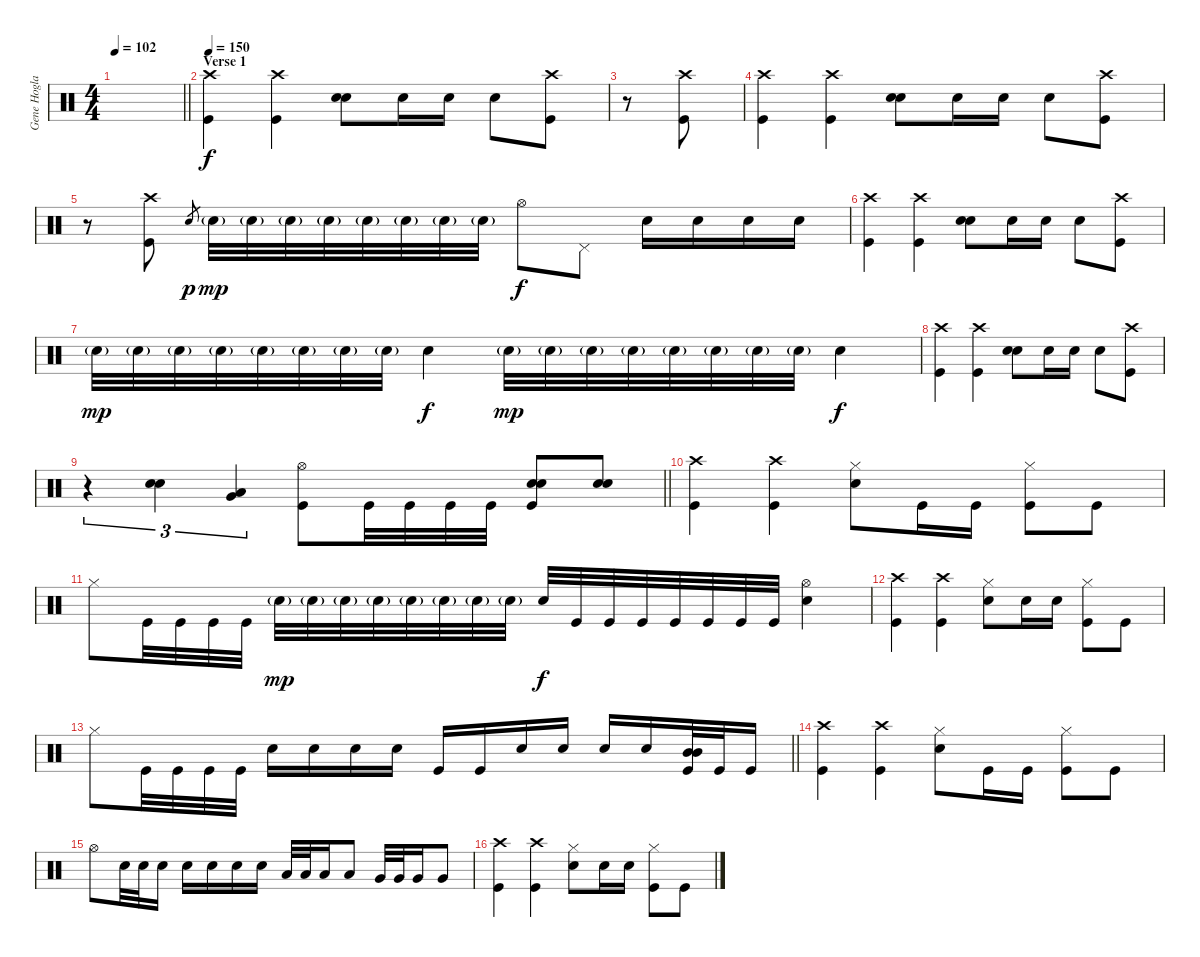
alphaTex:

\track ("Gene Hoglan" "Gene Hogla") {instrument percussion}
\staff {score}
\articulation defaults
\ts (4 4)
\tempo 102
\clef neutral
\barLineRight lightlight
\ks c
|
\section ("" "Verse 1")
\tempo 150
("Kick (hit)" "Crash high (hit)").4{volume 13} ("Kick (hit)" "Crash high (hit)").4 ("Snare (hit) 2" "Snare (hit) 2").8 "Snare (hit) 2".16 "Snare (hit) 2".16 "Snare (hit) 2".8 ("Kick (hit)" "Crash high (hit)").8 |
r.8 ("Kick (hit)" "Crash high (hit)").8 |
("Kick (hit)" "Crash high (hit)").4 ("Kick (hit)" "Crash high (hit)").4 ("Snare (hit) 2" "Snare (hit) 2").8 "Snare (hit) 2".16 "Snare (hit) 2".16 "Snare (hit) 2".8 ("Kick (hit)" "Crash high (hit)").8 |
r.8 ("Kick (hit)" "Crash high (hit)").8 "Snare (hit) 2".8{gr dy p} "Snare (hit) 2"{g}.32{dy mp} "Snare (hit) 2"{g}.32 "Snare (hit) 2"{g}.32 "Snare (hit) 2"{g}.32 "Snare (hit) 2"{g}.32 "Snare (hit) 2"{g}.32 "Snare (hit) 2"{g}.32 "Snare (hit) 2"{g}.32 "Hi-Hat (open)".8{dy f} "Pedal Hi-Hat (hit)".8 "Snare (hit) 2".16 "Snare (hit) 2".16 "Snare (hit) 2".16 "Snare (hit) 2".16 |
("Kick (hit)" "Crash high (hit)").4 ("Kick (hit)" "Crash high (hit)").4 ("Snare (hit) 2" "Snare (hit) 2").8 "Snare (hit) 2".16 "Snare (hit) 2".16 "Snare (hit) 2".8 ("Kick (hit)" "Crash high (hit)").8 |
"Snare (hit) 2"{g}.32{dy mp} "Snare (hit) 2"{g}.32 "Snare (hit) 2"{g}.32 "Snare (hit) 2"{g}.32 "Snare (hit) 2"{g}.32 "Snare (hit) 2"{g}.32 "Snare (hit) 2"{g}.32 "Snare (hit) 2"{g}.32 "Snare (hit) 2".4{dy f} "Snare (hit) 2"{g}.32{dy mp} "Snare (hit) 2"{g}.32 "Snare (hit) 2"{g}.32 "Snare (hit) 2"{g}.32 "Snare (hit) 2"{g}.32 "Snare (hit) 2"{g}.32 "Snare (hit) 2"{g}.32 "Snare (hit) 2"{g}.32 "Snare (hit) 2".4{dy f} |
("Kick (hit)" "Crash high (hit)").4 ("Kick (hit)" "Crash high (hit)").4 ("Snare (hit) 2" "Snare (hit) 2").8 "Snare (hit) 2".16 "Snare (hit) 2".16 "Snare (hit) 2".8 ("Kick (hit)" "Crash high (hit)").8 |
\barLineRight lightlight
r.4{tu (3 2)} ("Snare (hit) 2" "Snare (hit) 2").4{tu (3 2)} ("Very Low Tom (hit)" "Low Tom (hit)").4{tu (3 2)} ("Kick (hit)" "Hi-Hat (open)").8 "Kick (hit)".32 "Kick (hit)".32 "Kick (hit)".32 "Kick (hit)".32 ("Snare (hit) 2" "Snare (hit) 2" "Kick (hit)").8 ("Snare (hit) 2" "Snare (hit) 2").8 |
("Kick (hit)" "Crash high (hit)").4 ("Kick (hit)" "Crash high (hit)").4 ("Snare (hit) 2" "Hi-Hat (closed)").8 "Kick (hit)".16 "Kick (hit)".16 ("Hi-Hat (closed)" "Kick (hit)").8 "Kick (hit)".8 |
"Hi-Hat (closed)".8 "Kick (hit)".32 "Kick (hit)".32 "Kick (hit)".32 "Kick (hit)".32 "Snare (hit) 2"{g}.32{dy mp} "Snare (hit) 2"{g}.32 "Snare (hit) 2"{g}.32 "Snare (hit) 2"{g}.32 "Snare (hit) 2"{g}.32 "Snare (hit) 2"{g}.32 "Snare (hit) 2"{g}.32 "Snare (hit) 2"{g}.32 "Snare (hit) 2".32{dy f} "Kick (hit)".32 "Kick (hit)".32 "Kick (hit)".32 "Kick (hit)".32 "Kick (hit)".32 "Kick (hit)".32 "Kick (hit)".32 ("Hi-Hat (open)" "Snare (hit) 2").4 |
("Kick (hit)" "Crash high (hit)").4 ("Kick (hit)" "Crash high (hit)").4 ("Snare (hit) 2" "Hi-Hat (closed)").8 "Snare (hit) 2".16 "Snare (hit) 2".16 ("Hi-Hat (closed)" "Kick (hit)").8 "Kick (hit)".8 |
\barLineRight lightlight "Hi-Hat (closed)".8 "Kick (hit)".32 "Kick (hit)".32 "Kick (hit)".32 "Kick (hit)".32 "Snare (hit) 2".16 "Snare (hit) 2".16 "Snare (hit) 2".16 "Snare (hit) 2".16 "Kick (hit)".16 "Kick (hit)".16 "Snare (hit) 2".16 "Snare (hit) 2".16 "Snare (hit) 2".16 "Snare (hit) 2".16
("Kick (hit)" "Mid Tom (hit)" "Mid Tom (hit)").32 "Kick (hit)".32 "Kick (hit)".16 |
("Kick (hit)" "Crash high (hit)").4 ("Kick (hit)" "Crash high (hit)").4 ("Snare (hit) 2" "Hi-Hat (closed)").8 "Kick (hit)".16 "Kick (hit)".16 ("Hi-Hat (closed)" "Kick (hit)").8 "Kick (hit)".8 |
"Hi-Hat (open)".8 "Snare (hit) 2".32 "Snare (hit) 2".32 "Snare (hit) 2".16 "Snare (hit) 2".16 "Snare (hit) 2".16 "Snare (hit) 2".16 "Snare (hit) 2".16 "Low Tom (hit)".32 "Low Tom (hit)".32 "Low Tom (hit)".16 "Low Tom (hit)".8 "Very Low Tom (hit)".32 "Very Low Tom (hit)".32 "Very Low Tom (hit)".16 "Very Low Tom (hit)".8 |
("Kick (hit)" "Crash high (hit)").4 ("Kick (hit)" "Crash high (hit)").4 ("Snare (hit) 2" "Hi-Hat (closed)").8 "Snare (hit) 2".16 "Snare (hit) 2".16 ("Hi-Hat (closed)" "Kick (hit)").8 "Kick (hit)".8
